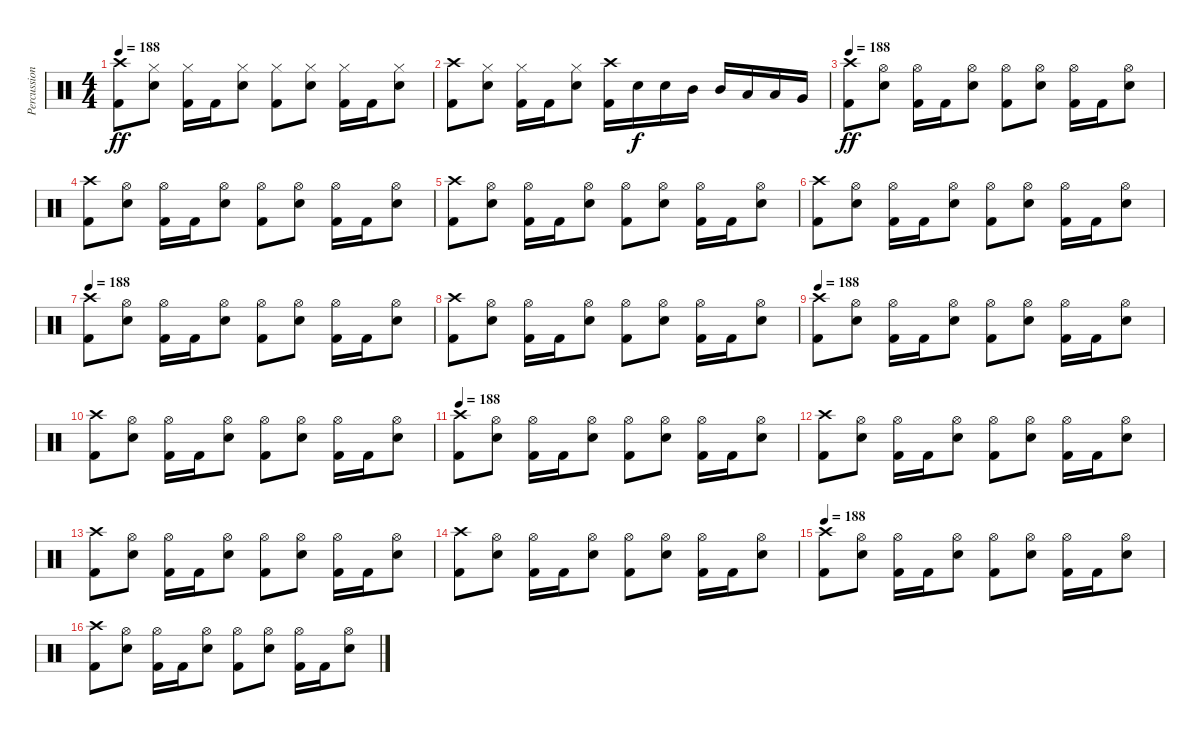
\track ("Percussion" "Percussion") {instrument percussion}
\staff {score}
\articulation defaults
\ts (4 4)
\tempo 188
\clef neutral
\ks c
("Crash high (hit)" "Kick (hit) 2").8{dy ff} ("Hi-Hat (closed)" "Snare (hit) 2").8 ("Hi-Hat (closed)" "Kick (hit) 2").16 "Kick (hit) 2".16 ("Hi-Hat (closed)" "Snare (hit) 2").8 ("Hi-Hat (closed)" "Kick (hit) 2").8 ("Hi-Hat (closed)" "Snare (hit) 2").8 ("Hi-Hat (closed)" "Kick (hit) 2").16 "Kick (hit) 2".16 ("Hi-Hat (closed)" "Snare (hit) 2").8 |
("Crash high (hit)" "Kick (hit) 2").8 ("Hi-Hat (closed)" "Snare (hit) 2").8 ("Hi-Hat (closed)" "Kick (hit) 2").16 "Kick (hit) 2".16 ("Hi-Hat (closed)" "Snare (hit) 2").8 ("Crash high (hit)" "Kick (hit) 2").16 "Snare (hit) 2".16{dy f} "Snare (hit) 2".16 "Mid Tom (hit)".16 "Mid Tom (hit)".16 "Low Tom (hit)".16 "Low Tom (hit)".16 "Very Low Tom (hit)".16 |
\tempo 188
("Crash high (hit)" "Kick (hit) 2").8{dy ff} ("Hi-Hat (open)" "Snare (hit) 2").8 ("Hi-Hat (open)" "Kick (hit) 2").16 "Kick (hit) 2".16 ("Hi-Hat (open)" "Snare (hit) 2").8 ("Hi-Hat (open)" "Kick (hit) 2").8 ("Hi-Hat (open)" "Snare (hit) 2").8 ("Hi-Hat (open)" "Kick (hit) 2").16 "Kick (hit) 2".16 ("Hi-Hat (open)" "Snare (hit) 2").8 |
("Crash high (hit)" "Kick (hit) 2").8 ("Hi-Hat (open)" "Snare (hit) 2").8 ("Hi-Hat (open)" "Kick (hit) 2").16 "Kick (hit) 2".16 ("Hi-Hat (open)" "Snare (hit) 2").8 ("Hi-Hat (open)" "Kick (hit) 2").8 ("Hi-Hat (open)" "Snare (hit) 2").8 ("Hi-Hat (open)" "Kick (hit) 2").16 "Kick (hit) 2".16 ("Hi-Hat (open)" "Snare (hit) 2").8 |
("Crash high (hit)" "Kick (hit) 2").8 ("Hi-Hat (open)" "Snare (hit) 2").8 ("Hi-Hat (open)" "Kick (hit) 2").16 "Kick (hit) 2".16 ("Hi-Hat (open)" "Snare (hit) 2").8 ("Hi-Hat (open)" "Kick (hit) 2").8 ("Hi-Hat (open)" "Snare (hit) 2").8 ("Hi-Hat (open)" "Kick (hit) 2").16 "Kick (hit) 2".16 ("Hi-Hat (open)" "Snare (hit) 2").8 |
("Crash high (hit)" "Kick (hit) 2").8 ("Hi-Hat (open)" "Snare (hit) 2").8 ("Hi-Hat (open)" "Kick (hit) 2").16 "Kick (hit) 2".16 ("Hi-Hat (open)" "Snare (hit) 2").8 ("Hi-Hat (open)" "Kick (hit) 2").8 ("Hi-Hat (open)" "Snare (hit) 2").8 ("Hi-Hat (open)" "Kick (hit) 2").16 "Kick (hit) 2".16 ("Hi-Hat (open)" "Snare (hit) 2").8 |
\tempo 188
("Crash high (hit)" "Kick (hit) 2").8 ("Hi-Hat (open)" "Snare (hit) 2").8 ("Hi-Hat (open)" "Kick (hit) 2").16 "Kick (hit) 2".16 ("Hi-Hat (open)" "Snare (hit) 2").8 ("Hi-Hat (open)" "Kick (hit) 2").8 ("Hi-Hat (open)" "Snare (hit) 2").8 ("Hi-Hat (open)" "Kick (hit) 2").16 "Kick (hit) 2".16 ("Hi-Hat (open)" "Snare (hit) 2").8 |
("Crash high (hit)" "Kick (hit) 2").8 ("Hi-Hat (open)" "Snare (hit) 2").8 ("Hi-Hat (open)" "Kick (hit) 2").16 "Kick (hit) 2".16 ("Hi-Hat (open)" "Snare (hit) 2").8 ("Hi-Hat (open)" "Kick (hit) 2").8 ("Hi-Hat (open)" "Snare (hit) 2").8 ("Hi-Hat (open)" "Kick (hit) 2").16 "Kick (hit) 2".16 ("Hi-Hat (open)" "Snare (hit) 2").8 |
\tempo 188
("Crash high (hit)" "Kick (hit) 2").8 ("Hi-Hat (open)" "Snare (hit) 2").8 ("Hi-Hat (open)" "Kick (hit) 2").16 "Kick (hit) 2".16 ("Hi-Hat (open)" "Snare (hit) 2").8 ("Hi-Hat (open)" "Kick (hit) 2").8 ("Hi-Hat (open)" "Snare (hit) 2").8 ("Hi-Hat (open)" "Kick (hit) 2").16 "Kick (hit) 2".16 ("Hi-Hat (open)" "Snare (hit) 2").8 |
("Crash high (hit)" "Kick (hit) 2").8 ("Hi-Hat (open)" "Snare (hit) 2").8 ("Hi-Hat (open)" "Kick (hit) 2").16 "Kick (hit) 2".16 ("Hi-Hat (open)" "Snare (hit) 2").8 ("Hi-Hat (open)" "Kick (hit) 2").8 ("Hi-Hat (open)" "Snare (hit) 2").8 ("Hi-Hat (open)" "Kick (hit) 2").16 "Kick (hit) 2".16 ("Hi-Hat (open)" "Snare (hit) 2").8 |
\tempo 188
("Crash high (hit)" "Kick (hit) 2").8 ("Hi-Hat (open)" "Snare (hit) 2").8 ("Hi-Hat (open)" "Kick (hit) 2").16 "Kick (hit) 2".16 ("Hi-Hat (open)" "Snare (hit) 2").8 ("Hi-Hat (open)" "Kick (hit) 2").8 ("Hi-Hat (open)" "Snare (hit) 2").8 ("Hi-Hat (open)" "Kick (hit) 2").16 "Kick (hit) 2".16 ("Hi-Hat (open)" "Snare (hit) 2").8 |
("Crash high (hit)" "Kick (hit) 2").8 ("Hi-Hat (open)" "Snare (hit) 2").8 ("Hi-Hat (open)" "Kick (hit) 2").16 "Kick (hit) 2".16 ("Hi-Hat (open)" "Snare (hit) 2").8 ("Hi-Hat (open)" "Kick (hit) 2").8 ("Hi-Hat (open)" "Snare (hit) 2").8 ("Hi-Hat (open)" "Kick (hit) 2").16 "Kick (hit) 2".16 ("Hi-Hat (open)" "Snare (hit) 2").8 |
("Crash high (hit)" "Kick (hit) 2").8 ("Hi-Hat (open)" "Snare (hit) 2").8 ("Hi-Hat (open)" "Kick (hit) 2").16 "Kick (hit) 2".16 ("Hi-Hat (open)" "Snare (hit) 2").8 ("Hi-Hat (open)" "Kick (hit) 2").8 ("Hi-Hat (open)" "Snare (hit) 2").8 ("Hi-Hat (open)" "Kick (hit) 2").16 "Kick (hit) 2".16 ("Hi-Hat (open)" "Snare (hit) 2").8 |
("Crash high (hit)" "Kick (hit) 2").8 ("Hi-Hat (open)" "Snare (hit) 2").8 ("Hi-Hat (open)" "Kick (hit) 2").16 "Kick (hit) 2".16 ("Hi-Hat (open)" "Snare (hit) 2").8 ("Hi-Hat (open)" "Kick (hit) 2").8 ("Hi-Hat (open)" "Snare (hit) 2").8 ("Hi-Hat (open)" "Kick (hit) 2").16 "Kick (hit) 2".16 ("Hi-Hat (open)" "Snare (hit) 2").8 |
\tempo 188
("Crash high (hit)" "Kick (hit) 2").8 ("Hi-Hat (open)" "Snare (hit) 2").8 ("Hi-Hat (open)" "Kick (hit) 2").16 "Kick (hit) 2".16 ("Hi-Hat (open)" "Snare (hit) 2").8 ("Hi-Hat (open)" "Kick (hit) 2").8 ("Hi-Hat (open)" "Snare (hit) 2").8 ("Hi-Hat (open)" "Kick (hit) 2").16 "Kick (hit) 2".16 ("Hi-Hat (open)" "Snare (hit) 2").8 |
("Crash high (hit)" "Kick (hit) 2").8 ("Hi-Hat (open)" "Snare (hit) 2").8 ("Hi-Hat (open)" "Kick (hit) 2").16 "Kick (hit) 2".16 ("Hi-Hat (open)" "Snare (hit) 2").8 ("Hi-Hat (open)" "Kick (hit) 2").8 ("Hi-Hat (open)" "Snare (hit) 2").8 ("Hi-Hat (open)" "Kick (hit) 2").16 "Kick (hit) 2".16 ("Hi-Hat (open)" "Snare (hit) 2").8
